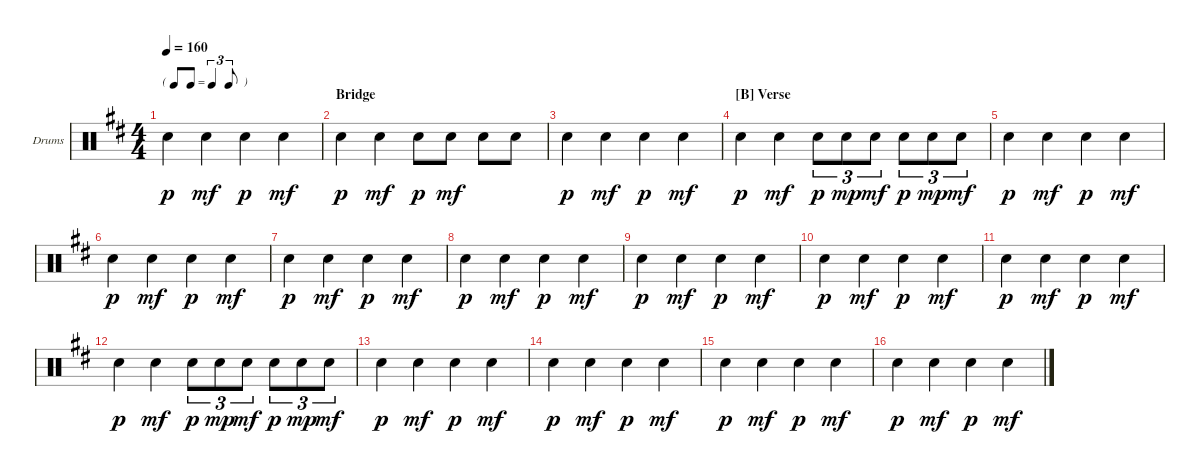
\defaultSystemsLayout 4
\bracketExtendMode groupsimilarinstruments
\firstSystemTrackNameOrientation horizontal
\otherSystemsTrackNameOrientation horizontal
\track ("Hal Blaine" "Drums") {instrument percussion}
\staff {score}
\articulation defaults
\ts (4 4)
\tf triplet8th
\tempo 160
\clef neutral
\ks bminor "Snare (hit) 2".4{dy p} "Snare (hit) 2".4{dy mf} "Snare (hit) 2".4{dy p} "Snare (hit) 2".4{dy mf}
|
\section ("" "Bridge")
"Snare (hit) 2".4{dy p} "Snare (hit) 2".4{dy mf} "Snare (hit) 2".8{dy p} "Snare (hit) 2".8{dy mf} "Snare (hit) 2".8 "Snare (hit) 2".8 |
"Snare (hit) 2".4{dy p} "Snare (hit) 2".4{dy mf} "Snare (hit) 2".4{dy p} "Snare (hit) 2".4{dy mf} |
\section ("B" "Verse")
"Snare (hit) 2".4{dy p} "Snare (hit) 2".4{dy mf} "Snare (hit) 2".8{tu (3 2) dy p} "Snare (hit) 2".8{tu (3 2) dy mp} "Snare (hit) 2".8{tu (3 2) dy mf} "Snare (hit) 2".8{tu (3 2) dy p} "Snare (hit) 2".8{tu (3 2) dy mp} "Snare (hit) 2".8{tu (3 2) dy mf} |
"Snare (hit) 2".4{dy p} "Snare (hit) 2".4{dy mf} "Snare (hit) 2".4{dy p} "Snare (hit) 2".4{dy mf} |
"Snare (hit) 2".4{dy p} "Snare (hit) 2".4{dy mf} "Snare (hit) 2".4{dy p} "Snare (hit) 2".4{dy mf} |
"Snare (hit) 2".4{dy p} "Snare (hit) 2".4{dy mf} "Snare (hit) 2".4{dy p} "Snare (hit) 2".4{dy mf} |
"Snare (hit) 2".4{dy p} "Snare (hit) 2".4{dy mf} "Snare (hit) 2".4{dy p} "Snare (hit) 2".4{dy mf} |
"Snare (hit) 2".4{dy p} "Snare (hit) 2".4{dy mf} "Snare (hit) 2".4{dy p} "Snare (hit) 2".4{dy mf} |
"Snare (hit) 2".4{dy p} "Snare (hit) 2".4{dy mf} "Snare (hit) 2".4{dy p} "Snare (hit) 2".4{dy mf} |
"Snare (hit) 2".4{dy p} "Snare (hit) 2".4{dy mf} "Snare (hit) 2".4{dy p} "Snare (hit) 2".4{dy mf} |
"Snare (hit) 2".4{dy p} "Snare (hit) 2".4{dy mf} "Snare (hit) 2".8{tu (3 2) dy p} "Snare (hit) 2".8{tu (3 2) dy mp} "Snare (hit) 2".8{tu (3 2) dy mf} "Snare (hit) 2".8{tu (3 2) dy p} "Snare (hit) 2".8{tu (3 2) dy mp} "Snare (hit) 2".8{tu (3 2) dy mf} |
"Snare (hit) 2".4{dy p} "Snare (hit) 2".4{dy mf} "Snare (hit) 2".4{dy p} "Snare (hit) 2".4{dy mf} |
"Snare (hit) 2".4{dy p} "Snare (hit) 2".4{dy mf} "Snare (hit) 2".4{dy p} "Snare (hit) 2".4{dy mf} |
"Snare (hit) 2".4{dy p} "Snare (hit) 2".4{dy mf} "Snare (hit) 2".4{dy p} "Snare (hit) 2".4{dy mf} |
"Snare (hit) 2".4{dy p} "Snare (hit) 2".4{dy mf} "Snare (hit) 2".4{dy p} "Snare (hit) 2".4{dy mf}
